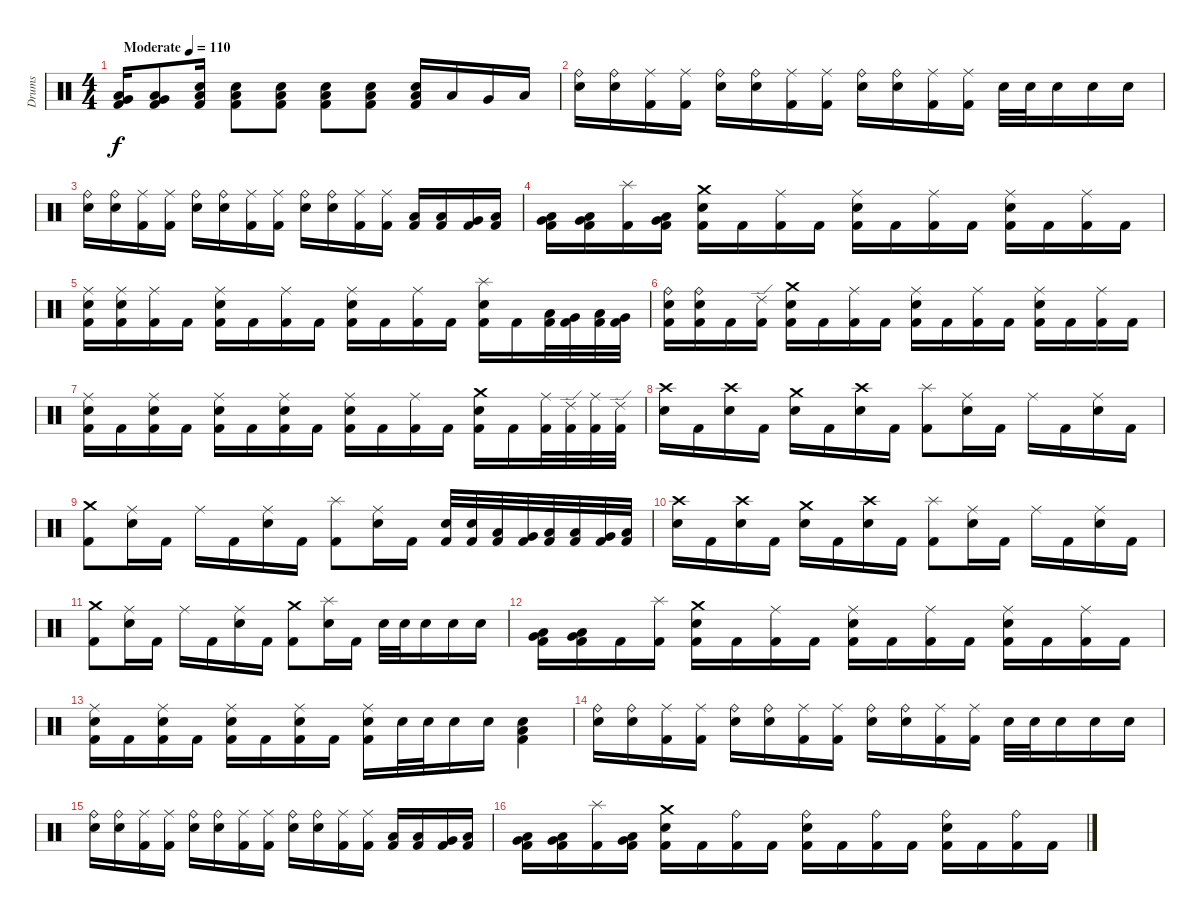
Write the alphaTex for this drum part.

\track ("Drums" "Drums") {instrument percussion}
\staff {score}
\articulation defaults
\ts (4 4)
\tempo (110 "Moderate")
\clef neutral
\ks c
("Low Floor Tom (hit)" "Very Low Tom (hit)" "Kick (hit) 2").16{dy f} ("Low Floor Tom (hit)" "Very Low Tom (hit)" "Kick (hit) 2").8 ("Low Floor Tom (hit)" "Electric Snare (hit)" "Kick (hit) 2").16 ("Low Floor Tom (hit)" "Electric Snare (hit)" "Kick (hit) 2").8 ("Low Floor Tom (hit)" "Electric Snare (hit)" "Kick (hit) 2").8 ("Low Floor Tom (hit)" "Electric Snare (hit)" "Kick (hit) 2").8 ("Low Floor Tom (hit)" "Electric Snare (hit)" "Kick (hit) 2").8 ("Low Floor Tom (hit)" "Electric Snare (hit)" "Kick (hit) 2").16 "Low Tom (hit)".16 "Very Low Tom (hit)".16 "Low Floor Tom (hit)".16 |
("Ride (bell)" "Electric Snare (hit)").16 ("Ride (bell)" "Electric Snare (hit)").16 ("Ride (middle)" "Kick (hit) 2").16 ("Ride (middle)" "Kick (hit) 2").16 ("Ride (bell)" "Electric Snare (hit)").16 ("Ride (bell)" "Electric Snare (hit)").16 ("Ride (middle)" "Kick (hit) 2").16 ("Ride (middle)" "Kick (hit) 2").16 ("Ride (bell)" "Electric Snare (hit)").16 ("Ride (bell)" "Electric Snare (hit)").16 ("Ride (middle)" "Kick (hit) 2").16 ("Ride (middle)" "Kick (hit) 2").16 "Electric Snare (hit)".32 "Electric Snare (hit)".32 "Electric Snare (hit)".16 "Electric Snare (hit)".16 "Electric Snare (hit)".16 |
("Ride (bell)" "Electric Snare (hit)").16 ("Ride (bell)" "Electric Snare (hit)").16 ("Ride (middle)" "Kick (hit) 2").16 ("Ride (middle)" "Kick (hit) 2").16 ("Ride (bell)" "Electric Snare (hit)").16 ("Ride (bell)" "Electric Snare (hit)").16 ("Ride (middle)" "Kick (hit) 2").16 ("Ride (middle)" "Kick (hit) 2").16 ("Ride (bell)" "Electric Snare (hit)").16 ("Ride (bell)" "Electric Snare (hit)").16 ("Ride (middle)" "Kick (hit) 2").16 ("Ride (middle)" "Kick (hit) 2").16 ("Low Tom (hit)" "Kick (hit) 2").16 ("Low Tom (hit)" "Kick (hit) 2").16 ("Very Low Tom (hit)" "Kick (hit) 2").16 ("Low Floor Tom (hit)" "Kick (hit) 2").16 |
("Low Floor Tom (hit)" "Very Low Tom (hit)" "Kick (hit) 2").16 ("Low Floor Tom (hit)" "Very Low Tom (hit)" "Kick (hit) 2").16 ("Splash (hit)" "Kick (hit) 2").16 ("Low Floor Tom (hit)" "Very Low Tom (hit)" "Kick (hit) 2").16 ("Crash medium (hit)" "Electric Snare (hit)" "Kick (hit) 2").16 "Kick (hit) 2".16 ("Ride (middle)" "Kick (hit) 2").16 "Kick (hit) 2".16 ("Ride (middle)" "Electric Snare (hit)" "Kick (hit) 2").16 "Kick (hit) 2".16 ("Ride (middle)" "Kick (hit) 2").16 "Kick (hit) 2".16 ("Ride (middle)" "Electric Snare (hit)" "Kick (hit) 2").16 "Kick (hit) 2".16 ("Ride (middle)" "Kick (hit) 2").16 "Kick (hit) 2".16 |
("Ride (middle)" "Electric Snare (hit)" "Kick (hit) 2").16 ("Ride (middle)" "Electric Snare (hit)" "Kick (hit) 2").16 ("Ride (middle)" "Kick (hit) 2").16 "Kick (hit) 2".16 ("Ride (middle)" "Electric Snare (hit)" "Kick (hit) 2").16 "Kick (hit) 2".16 ("Ride (middle)" "Kick (hit) 2").16 "Kick (hit) 2".16 ("Ride (middle)" "Electric Snare (hit)" "Kick (hit) 2").16 "Kick (hit) 2".16 ("Ride (middle)" "Kick (hit) 2").16 "Kick (hit) 2".16 ("Splash (hit)" "Electric Snare (hit)" "Kick (hit) 2").16 "Kick (hit) 2".16 ("Low Floor Tom (hit)" "Kick (hit) 2").32 ("Very Low Tom (hit)" "Kick (hit) 2").32 ("Low Tom (hit)" "Kick (hit) 2").32 ("Very Low Tom (hit)" "Kick (hit) 2").32 |
("Ride (bell)" "Electric Snare (hit)" "Kick (hit) 2").16 ("Ride (bell)" "Electric Snare (hit)" "Kick (hit) 2").16 "Kick (hit) 2".16 ("Ride (edge) 2" "Kick (hit) 2").16 ("Crash medium (hit)" "Electric Snare (hit)" "Kick (hit) 2").16 "Kick (hit) 2".16 ("Ride (middle)" "Kick (hit) 2").16 "Kick (hit) 2".16 ("Ride (middle)" "Electric Snare (hit)" "Kick (hit) 2").16 "Kick (hit) 2".16 ("Ride (middle)" "Kick (hit) 2").16 "Kick (hit) 2".16 ("Ride (middle)" "Electric Snare (hit)" "Kick (hit) 2").16 "Kick (hit) 2".16 ("Ride (middle)" "Kick (hit) 2").16 "Kick (hit) 2".16 |
("Ride (middle)" "Electric Snare (hit)" "Kick (hit) 2").16 "Kick (hit) 2".16 ("Ride (middle)" "Electric Snare (hit)" "Kick (hit) 2").16 "Kick (hit) 2".16 ("Ride (middle)" "Electric Snare (hit)" "Kick (hit) 2").16 "Kick (hit) 2".16 ("Ride (middle)" "Electric Snare (hit)" "Kick (hit) 2").16 "Kick (hit) 2".16 ("Ride (middle)" "Electric Snare (hit)" "Kick (hit) 2").16 "Kick (hit) 2".16 ("Ride (middle)" "Kick (hit) 2").16 "Kick (hit) 2".16 ("Crash medium (hit)" "Electric Snare (hit)" "Kick (hit) 2").16 "Kick (hit) 2".16 ("Ride (middle)" "Kick (hit) 2").32 ("Ride (edge) 2" "Kick (hit) 2").32 ("Ride (middle)" "Kick (hit) 2").32 ("Ride (edge) 2" "Kick (hit) 2").32 |
("Crash high (hit)" "Electric Snare (hit)").16 "Kick (hit) 2".16 ("Crash high (hit)" "Electric Snare (hit)").16 "Kick (hit) 2".16 ("Crash medium (hit)" "Electric Snare (hit)").16 "Kick (hit) 2".16 ("Crash high (hit)" "Electric Snare (hit)").16 "Kick (hit) 2".16 ("Splash (hit)" "Kick (hit) 2").8 ("Ride (middle)" "Electric Snare (hit)").16 "Kick (hit) 2".16 "Ride (middle)".16 "Kick (hit) 2".16 ("Ride (middle)" "Electric Snare (hit)").16 "Kick (hit) 2".16 |
("Crash medium (hit)" "Kick (hit) 2").8 ("Ride (middle)" "Electric Snare (hit)").16 "Kick (hit) 2".16 "Ride (middle)".16 "Kick (hit) 2".16 ("Ride (middle)" "Electric Snare (hit)").16 "Kick (hit) 2".16 ("Splash (hit)" "Kick (hit) 2").8 ("Ride (middle)" "Electric Snare (hit)").16 "Kick (hit) 2".16 ("Electric Snare (hit)" "Kick (hit) 2").32 ("Electric Snare (hit)" "Kick (hit) 2").32 ("Low Tom (hit)" "Kick (hit) 2").32 ("Very Low Tom (hit)" "Kick (hit) 2").32 ("Low Floor Tom (hit)" "Kick (hit) 2").32 ("Low Tom (hit)" "Kick (hit) 2").32 ("Very Low Tom (hit)" "Kick (hit) 2").32 ("Low Floor Tom (hit)" "Kick (hit) 2").32 |
("Crash high (hit)" "Electric Snare (hit)").16 "Kick (hit) 2".16 ("Crash high (hit)" "Electric Snare (hit)").16 "Kick (hit) 2".16 ("Crash medium (hit)" "Electric Snare (hit)").16 "Kick (hit) 2".16 ("Crash high (hit)" "Electric Snare (hit)").16 "Kick (hit) 2".16 ("Splash (hit)" "Kick (hit) 2").8 ("Ride (middle)" "Electric Snare (hit)").16 "Kick (hit) 2".16 "Ride (middle)".16 "Kick (hit) 2".16 ("Ride (middle)" "Electric Snare (hit)").16 "Kick (hit) 2".16 |
("Crash medium (hit)" "Kick (hit) 2").8 ("Ride (middle)" "Electric Snare (hit)").16 "Kick (hit) 2".16 "Ride (middle)".16 "Kick (hit) 2".16 ("Ride (middle)" "Electric Snare (hit)").16 "Kick (hit) 2".16 ("Crash medium (hit)" "Kick (hit) 2").8 ("Splash (hit)" "Electric Snare (hit)").16 "Kick (hit) 2".16 "Electric Snare (hit)".32 "Electric Snare (hit)".32 "Electric Snare (hit)".16 "Electric Snare (hit)".16 "Electric Snare (hit)".16 |
("Low Floor Tom (hit)" "Very Low Tom (hit)" "Kick (hit) 2").16 ("Low Floor Tom (hit)" "Very Low Tom (hit)" "Kick (hit) 2").16 "Kick (hit) 2".16 ("Splash (hit)" "Kick (hit) 2").16 ("Crash medium (hit)" "Electric Snare (hit)" "Kick (hit) 2").16 "Kick (hit) 2".16 ("Ride (middle)" "Kick (hit) 2").16 "Kick (hit) 2".16 ("Ride (middle)" "Electric Snare (hit)" "Kick (hit) 2").16 "Kick (hit) 2".16 ("Ride (middle)" "Kick (hit) 2").16 "Kick (hit) 2".16 ("Ride (middle)" "Electric Snare (hit)" "Kick (hit) 2").16 "Kick (hit) 2".16 ("Ride (middle)" "Kick (hit) 2").16 "Kick (hit) 2".16 |
("Ride (middle)" "Electric Snare (hit)" "Kick (hit) 2").16 "Kick (hit) 2".16 ("Ride (middle)" "Electric Snare (hit)" "Kick (hit) 2").16 "Kick (hit) 2".16 ("Ride (middle)" "Electric Snare (hit)" "Kick (hit) 2").16 "Kick (hit) 2".16 ("Ride (middle)" "Electric Snare (hit)" "Kick (hit) 2").16 "Kick (hit) 2".16 ("Ride (middle)" "Electric Snare (hit)" "Kick (hit) 2").16 "Electric Snare (hit)".32 "Electric Snare (hit)".32 "Electric Snare (hit)".16 "Electric Snare (hit)".16 ("Low Floor Tom (hit)" "Electric Snare (hit)" "Kick (hit) 2").4 |
("Ride (bell)" "Electric Snare (hit)").16 ("Ride (bell)" "Electric Snare (hit)").16 ("Ride (middle)" "Kick (hit) 2").16 ("Ride (middle)" "Kick (hit) 2").16 ("Ride (bell)" "Electric Snare (hit)").16 ("Ride (bell)" "Electric Snare (hit)").16 ("Ride (middle)" "Kick (hit) 2").16 ("Ride (middle)" "Kick (hit) 2").16 ("Ride (bell)" "Electric Snare (hit)").16 ("Ride (bell)" "Electric Snare (hit)").16 ("Ride (middle)" "Kick (hit) 2").16 ("Ride (middle)" "Kick (hit) 2").16 "Electric Snare (hit)".32 "Electric Snare (hit)".32 "Electric Snare (hit)".16 "Electric Snare (hit)".16 "Electric Snare (hit)".16 |
("Ride (bell)" "Electric Snare (hit)").16 ("Ride (bell)" "Electric Snare (hit)").16 ("Ride (middle)" "Kick (hit) 2").16 ("Ride (middle)" "Kick (hit) 2").16 ("Ride (bell)" "Electric Snare (hit)").16 ("Ride (bell)" "Electric Snare (hit)").16 ("Ride (middle)" "Kick (hit) 2").16 ("Ride (middle)" "Kick (hit) 2").16 ("Ride (bell)" "Electric Snare (hit)").16 ("Ride (bell)" "Electric Snare (hit)").16 ("Ride (middle)" "Kick (hit) 2").16 ("Ride (middle)" "Kick (hit) 2").16 ("Low Tom (hit)" "Kick (hit) 2").16 ("Low Tom (hit)" "Kick (hit) 2").16 ("Very Low Tom (hit)" "Kick (hit) 2").16 ("Low Floor Tom (hit)" "Kick (hit) 2").16 |
("Low Floor Tom (hit)" "Very Low Tom (hit)" "Kick (hit) 2").16 ("Low Floor Tom (hit)" "Very Low Tom (hit)" "Kick (hit) 2").16 ("Splash (hit)" "Kick (hit) 2").16 ("Low Floor Tom (hit)" "Very Low Tom (hit)" "Kick (hit) 2").16 ("Crash medium (hit)" "Electric Snare (hit)" "Kick (hit) 2").16 "Kick (hit) 2".16 ("Ride (bell)" "Kick (hit) 2").16 "Kick (hit) 2".16 ("Ride (bell)" "Electric Snare (hit)" "Kick (hit) 2").16 "Kick (hit) 2".16 ("Ride (bell)" "Kick (hit) 2").16 "Kick (hit) 2".16 ("Ride (bell)" "Electric Snare (hit)" "Kick (hit) 2").16 "Kick (hit) 2".16 ("Ride (bell)" "Kick (hit) 2").16 "Kick (hit) 2".16
